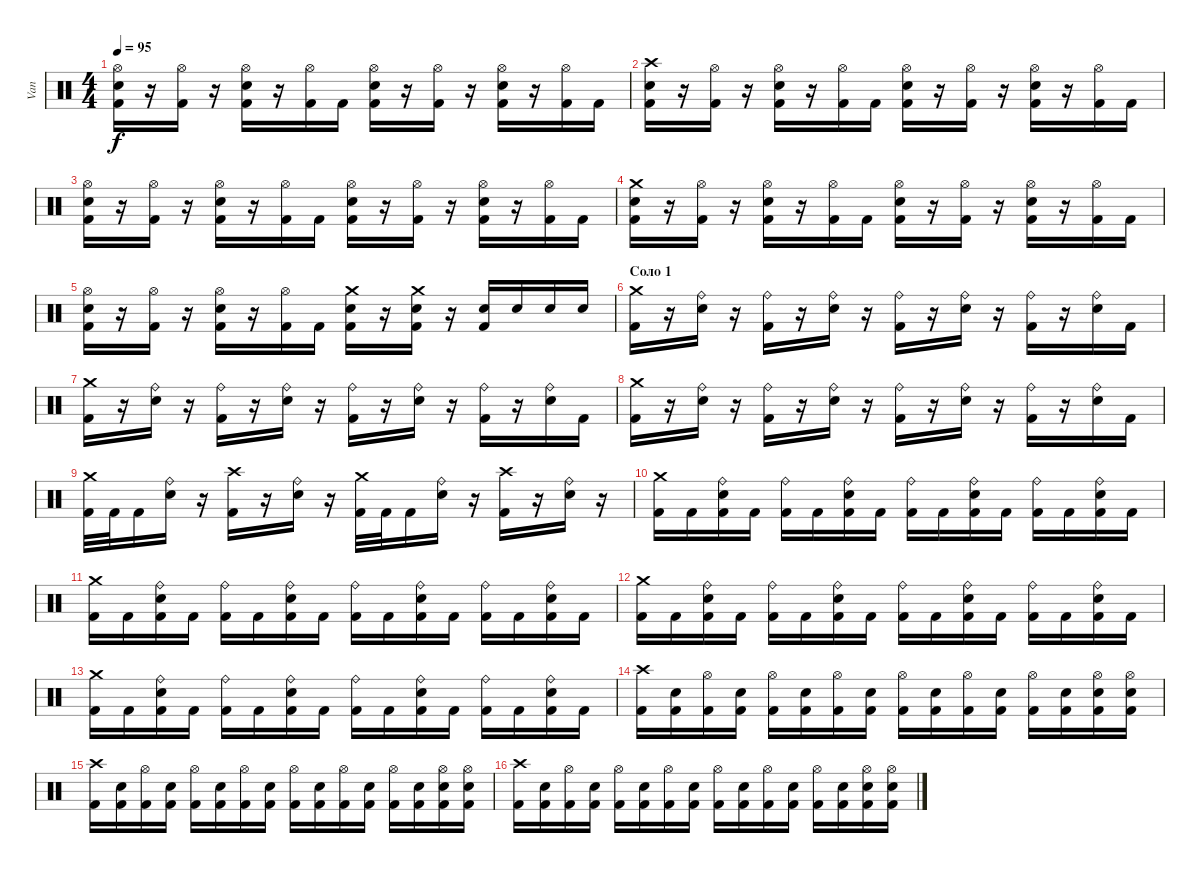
\track ("Van" "Van") {instrument percussion}
\staff {score}
\articulation defaults
\ts (4 4)
\tempo 95
\clef neutral
\ks c
("Hi-Hat (open)" "Electric Snare (hit)" "Kick (hit) 2").16{dy f} r.16 ("Hi-Hat (open)" "Kick (hit) 2").16 r.16 ("Hi-Hat (open)" "Electric Snare (hit)" "Kick (hit) 2").16 r.16 ("Hi-Hat (open)" "Kick (hit) 2").16 "Kick (hit) 2".16 ("Hi-Hat (open)" "Electric Snare (hit)" "Kick (hit) 2").16 r.16 ("Hi-Hat (open)" "Kick (hit) 2").16 r.16 ("Hi-Hat (open)" "Electric Snare (hit)" "Kick (hit) 2").16 r.16 ("Hi-Hat (open)" "Kick (hit) 2").16 "Kick (hit) 2".16 |
("Crash high (hit)" "Electric Snare (hit)" "Kick (hit) 2").16 r.16 ("Hi-Hat (open)" "Kick (hit) 2").16 r.16 ("Hi-Hat (open)" "Electric Snare (hit)" "Kick (hit) 2").16 r.16 ("Hi-Hat (open)" "Kick (hit) 2").16 "Kick (hit) 2".16 ("Hi-Hat (open)" "Electric Snare (hit)" "Kick (hit) 2").16 r.16 ("Hi-Hat (open)" "Kick (hit) 2").16 r.16 ("Hi-Hat (open)" "Electric Snare (hit)" "Kick (hit) 2").16 r.16 ("Hi-Hat (open)" "Kick (hit) 2").16 "Kick (hit) 2".16 |
("Hi-Hat (open)" "Electric Snare (hit)" "Kick (hit) 2").16 r.16 ("Hi-Hat (open)" "Kick (hit) 2").16 r.16 ("Hi-Hat (open)" "Electric Snare (hit)" "Kick (hit) 2").16 r.16 ("Hi-Hat (open)" "Kick (hit) 2").16 "Kick (hit) 2".16 ("Hi-Hat (open)" "Electric Snare (hit)" "Kick (hit) 2").16 r.16 ("Hi-Hat (open)" "Kick (hit) 2").16 r.16 ("Hi-Hat (open)" "Electric Snare (hit)" "Kick (hit) 2").16 r.16 ("Hi-Hat (open)" "Kick (hit) 2").16 "Kick (hit) 2".16 |
("Crash medium (hit)" "Electric Snare (hit)" "Kick (hit) 2").16 r.16 ("Hi-Hat (open)" "Kick (hit) 2").16 r.16 ("Hi-Hat (open)" "Electric Snare (hit)" "Kick (hit) 2").16 r.16 ("Hi-Hat (open)" "Kick (hit) 2").16 "Kick (hit) 2".16 ("Hi-Hat (open)" "Electric Snare (hit)" "Kick (hit) 2").16 r.16 ("Hi-Hat (open)" "Kick (hit) 2").16 r.16 ("Hi-Hat (open)" "Electric Snare (hit)" "Kick (hit) 2").16 r.16 ("Hi-Hat (open)" "Kick (hit) 2").16 "Kick (hit) 2".16 |
("Hi-Hat (open)" "Electric Snare (hit)" "Kick (hit) 2").16 r.16 ("Hi-Hat (open)" "Kick (hit) 2").16 r.16 ("Hi-Hat (open)" "Electric Snare (hit)" "Kick (hit) 2").16 r.16 ("Hi-Hat (open)" "Kick (hit) 2").16 "Kick (hit) 2".16 ("Crash medium (hit)" "Electric Snare (hit)" "Kick (hit) 2").16 r.16 ("Crash medium (hit)" "Electric Snare (hit)" "Kick (hit) 2").16 r.16 ("Electric Snare (hit)" "Kick (hit) 2").16 "Electric Snare (hit)".16 "Electric Snare (hit)".16 "Electric Snare (hit)".16 |
\section ("" "Соло 1")
("Crash medium (hit)" "Kick (hit) 2").16 r.16 ("Ride (bell)" "Electric Snare (hit)").16 r.16 ("Ride (bell)" "Kick (hit) 2").16 r.16 ("Ride (bell)" "Electric Snare (hit)").16 r.16 ("Ride (bell)" "Kick (hit) 2").16 r.16 ("Ride (bell)" "Electric Snare (hit)").16 r.16 ("Ride (bell)" "Kick (hit) 2").16 r.16 ("Ride (bell)" "Electric Snare (hit)").16 "Kick (hit) 2".16 |
("Crash medium (hit)" "Kick (hit) 2").16 r.16 ("Ride (bell)" "Electric Snare (hit)").16 r.16 ("Ride (bell)" "Kick (hit) 2").16 r.16 ("Ride (bell)" "Electric Snare (hit)").16 r.16 ("Ride (bell)" "Kick (hit) 2").16 r.16 ("Ride (bell)" "Electric Snare (hit)").16 r.16 ("Ride (bell)" "Kick (hit) 2").16 r.16 ("Ride (bell)" "Electric Snare (hit)").16 "Kick (hit) 2".16 |
("Crash medium (hit)" "Kick (hit) 2").16 r.16 ("Ride (bell)" "Electric Snare (hit)").16 r.16 ("Ride (bell)" "Kick (hit) 2").16 r.16 ("Ride (bell)" "Electric Snare (hit)").16 r.16 ("Ride (bell)" "Kick (hit) 2").16 r.16 ("Ride (bell)" "Electric Snare (hit)").16 r.16 ("Ride (bell)" "Kick (hit) 2").16 r.16 ("Ride (bell)" "Electric Snare (hit)").16 "Kick (hit) 2".16 |
("Crash medium (hit)" "Kick (hit) 2").32 "Kick (hit) 2".32 "Kick (hit) 2".16 ("Ride (bell)" "Electric Snare (hit)").16 r.16 ("Crash high (hit)" "Kick (hit) 2").16 r.16 ("Ride (bell)" "Electric Snare (hit)").16 r.16 ("Crash medium (hit)" "Kick (hit) 2").32 "Kick (hit) 2".32 "Kick (hit) 2".16 ("Ride (bell)" "Electric Snare (hit)").16 r.16 ("Crash high (hit)" "Kick (hit) 2").16 r.16 ("Ride (bell)" "Electric Snare (hit)").16 r.16 |
("Crash medium (hit)" "Kick (hit) 2").16 "Kick (hit) 2".16 ("Ride (bell)" "Electric Snare (hit)" "Kick (hit) 2").16 "Kick (hit) 2".16 ("Ride (bell)" "Kick (hit) 2").16 "Kick (hit) 2".16 ("Ride (bell)" "Electric Snare (hit)" "Kick (hit) 2").16 "Kick (hit) 2".16 ("Ride (bell)" "Kick (hit) 2").16 "Kick (hit) 2".16 ("Ride (bell)" "Electric Snare (hit)" "Kick (hit) 2").16 "Kick (hit) 2".16 ("Ride (bell)" "Kick (hit) 2").16 "Kick (hit) 2".16 ("Ride (bell)" "Electric Snare (hit)" "Kick (hit) 2").16 "Kick (hit) 2".16 |
("Crash medium (hit)" "Kick (hit) 2").16 "Kick (hit) 2".16 ("Ride (bell)" "Electric Snare (hit)" "Kick (hit) 2").16 "Kick (hit) 2".16 ("Ride (bell)" "Kick (hit) 2").16 "Kick (hit) 2".16 ("Ride (bell)" "Electric Snare (hit)" "Kick (hit) 2").16 "Kick (hit) 2".16 ("Ride (bell)" "Kick (hit) 2").16 "Kick (hit) 2".16 ("Ride (bell)" "Electric Snare (hit)" "Kick (hit) 2").16 "Kick (hit) 2".16 ("Ride (bell)" "Kick (hit) 2").16 "Kick (hit) 2".16 ("Ride (bell)" "Electric Snare (hit)" "Kick (hit) 2").16 "Kick (hit) 2".16 |
("Crash medium (hit)" "Kick (hit) 2").16 "Kick (hit) 2".16 ("Ride (bell)" "Electric Snare (hit)" "Kick (hit) 2").16 "Kick (hit) 2".16 ("Ride (bell)" "Kick (hit) 2").16 "Kick (hit) 2".16 ("Ride (bell)" "Electric Snare (hit)" "Kick (hit) 2").16 "Kick (hit) 2".16 ("Ride (bell)" "Kick (hit) 2").16 "Kick (hit) 2".16 ("Ride (bell)" "Electric Snare (hit)" "Kick (hit) 2").16 "Kick (hit) 2".16 ("Ride (bell)" "Kick (hit) 2").16 "Kick (hit) 2".16 ("Ride (bell)" "Electric Snare (hit)" "Kick (hit) 2").16 "Kick (hit) 2".16 |
("Crash medium (hit)" "Kick (hit) 2").16 "Kick (hit) 2".16 ("Ride (bell)" "Electric Snare (hit)" "Kick (hit) 2").16 "Kick (hit) 2".16 ("Ride (bell)" "Kick (hit) 2").16 "Kick (hit) 2".16 ("Ride (bell)" "Electric Snare (hit)" "Kick (hit) 2").16 "Kick (hit) 2".16 ("Ride (bell)" "Kick (hit) 2").16 "Kick (hit) 2".16 ("Ride (bell)" "Electric Snare (hit)" "Kick (hit) 2").16 "Kick (hit) 2".16 ("Ride (bell)" "Kick (hit) 2").16 "Kick (hit) 2".16 ("Ride (bell)" "Electric Snare (hit)" "Kick (hit) 2").16 "Kick (hit) 2".16 |
("Crash high (hit)" "Kick (hit) 2").16 ("Electric Snare (hit)" "Kick (hit) 2").16 ("Hi-Hat (open)" "Kick (hit) 2").16 ("Electric Snare (hit)" "Kick (hit) 2").16 ("Hi-Hat (open)" "Kick (hit) 2").16 ("Electric Snare (hit)" "Kick (hit) 2").16 ("Hi-Hat (open)" "Kick (hit) 2").16 ("Electric Snare (hit)" "Kick (hit) 2").16 ("Hi-Hat (open)" "Kick (hit) 2").16 ("Electric Snare (hit)" "Kick (hit) 2").16 ("Hi-Hat (open)" "Kick (hit) 2").16 ("Electric Snare (hit)" "Kick (hit) 2").16 ("Hi-Hat (open)" "Kick (hit) 2").16 ("Electric Snare (hit)" "Kick (hit) 2").16 ("Hi-Hat (open)" "Electric Snare (hit)" "Kick (hit) 2").16 ("Hi-Hat (open)" "Electric Snare (hit)" "Kick (hit) 2").16 |
("Crash high (hit)" "Kick (hit) 2").16 ("Electric Snare (hit)" "Kick (hit) 2").16 ("Hi-Hat (open)" "Kick (hit) 2").16 ("Electric Snare (hit)" "Kick (hit) 2").16 ("Hi-Hat (open)" "Kick (hit) 2").16 ("Electric Snare (hit)" "Kick (hit) 2").16 ("Hi-Hat (open)" "Kick (hit) 2").16 ("Electric Snare (hit)" "Kick (hit) 2").16 ("Hi-Hat (open)" "Kick (hit) 2").16 ("Electric Snare (hit)" "Kick (hit) 2").16 ("Hi-Hat (open)" "Kick (hit) 2").16 ("Electric Snare (hit)" "Kick (hit) 2").16 ("Hi-Hat (open)" "Kick (hit) 2").16 ("Electric Snare (hit)" "Kick (hit) 2").16 ("Hi-Hat (open)" "Electric Snare (hit)" "Kick (hit) 2").16 ("Hi-Hat (open)" "Electric Snare (hit)" "Kick (hit) 2").16 |
("Crash high (hit)" "Kick (hit) 2").16 ("Electric Snare (hit)" "Kick (hit) 2").16 ("Hi-Hat (open)" "Kick (hit) 2").16 ("Electric Snare (hit)" "Kick (hit) 2").16 ("Hi-Hat (open)" "Kick (hit) 2").16 ("Electric Snare (hit)" "Kick (hit) 2").16 ("Hi-Hat (open)" "Kick (hit) 2").16 ("Electric Snare (hit)" "Kick (hit) 2").16 ("Hi-Hat (open)" "Kick (hit) 2").16 ("Electric Snare (hit)" "Kick (hit) 2").16 ("Hi-Hat (open)" "Kick (hit) 2").16 ("Electric Snare (hit)" "Kick (hit) 2").16 ("Hi-Hat (open)" "Kick (hit) 2").16 ("Electric Snare (hit)" "Kick (hit) 2").16 ("Hi-Hat (open)" "Electric Snare (hit)" "Kick (hit) 2").16 ("Hi-Hat (open)" "Electric Snare (hit)" "Kick (hit) 2").16
